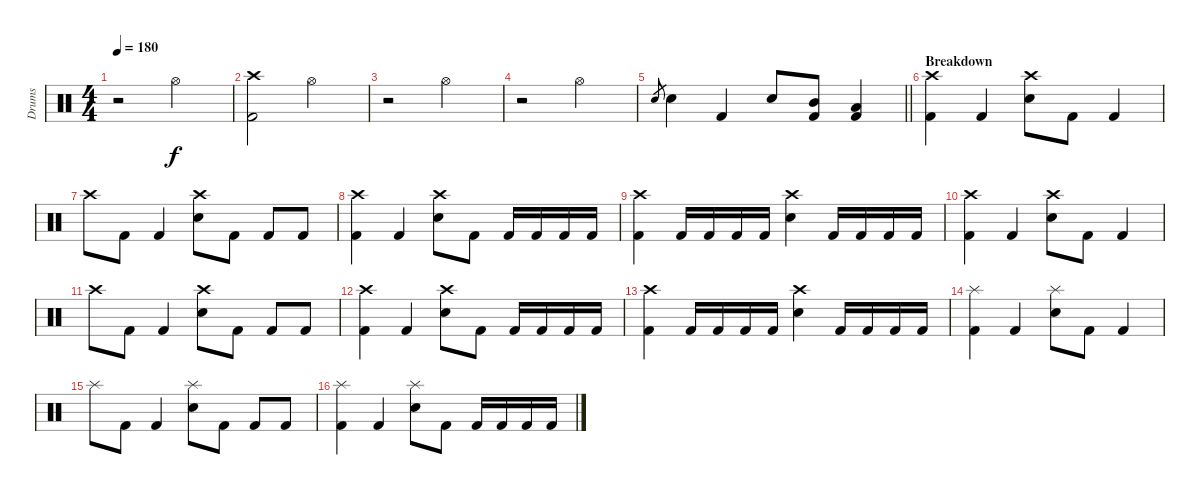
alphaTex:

\track ("Drums" "Drums") {instrument percussion}
\staff {score}
\articulation defaults
\ts (4 4)
\tempo 180
\clef neutral
\ks c
r.2{dy f} "Hi-Hat (open)".2 |
("Crash high (hit)" "Kick (hit) 2").2 "Hi-Hat (open)".2 |
r.2 "Hi-Hat (open)".2 |
r.2 "Hi-Hat (open)".2 |
\barLineRight lightlight "Electric Snare (hit)".8{gr} "Electric Snare (hit)".4 "Kick (hit) 2".4 "Electric Snare (hit)".8
("Mid Tom (hit)" "Kick (hit) 2").8 ("Low Tom (hit)" "Kick (hit) 2").4 |
\section ("" "Breakdown")
("Crash high (hit)" "Kick (hit) 2").4 "Kick (hit) 2".4 ("Crash high (hit)" "Electric Snare (hit)").8 "Kick (hit) 2".8 "Kick (hit) 2".4 |
"Crash high (hit)".8 "Kick (hit) 2".8 "Kick (hit) 2".4 ("Crash high (hit)" "Electric Snare (hit)").8 "Kick (hit) 2".8 "Kick (hit) 2".8 "Kick (hit) 2".8 |
("Crash high (hit)" "Kick (hit) 2").4 "Kick (hit) 2".4 ("Crash high (hit)" "Electric Snare (hit)").8 "Kick (hit) 2".8 "Kick (hit) 2".16 "Kick (hit) 2".16 "Kick (hit) 2".16 "Kick (hit) 2".16 |
("Crash high (hit)" "Kick (hit) 2").4 "Kick (hit) 2".16 "Kick (hit) 2".16 "Kick (hit) 2".16 "Kick (hit) 2".16 ("Crash high (hit)" "Electric Snare (hit)").4 "Kick (hit) 2".16 "Kick (hit) 2".16 "Kick (hit) 2".16 "Kick (hit) 2".16 |
("Crash high (hit)" "Kick (hit) 2").4 "Kick (hit) 2".4 ("Crash high (hit)" "Electric Snare (hit)").8 "Kick (hit) 2".8 "Kick (hit) 2".4 |
"Crash high (hit)".8 "Kick (hit) 2".8 "Kick (hit) 2".4 ("Crash high (hit)" "Electric Snare (hit)").8 "Kick (hit) 2".8 "Kick (hit) 2".8 "Kick (hit) 2".8 |
("Crash high (hit)" "Kick (hit) 2").4 "Kick (hit) 2".4 ("Crash high (hit)" "Electric Snare (hit)").8 "Kick (hit) 2".8 "Kick (hit) 2".16 "Kick (hit) 2".16 "Kick (hit) 2".16 "Kick (hit) 2".16 |
("Crash high (hit)" "Kick (hit) 2").4 "Kick (hit) 2".16 "Kick (hit) 2".16 "Kick (hit) 2".16 "Kick (hit) 2".16 ("Crash high (hit)" "Electric Snare (hit)").4 "Kick (hit) 2".16 "Kick (hit) 2".16 "Kick (hit) 2".16 "Kick (hit) 2".16 |
("Splash (hit)" "Kick (hit) 2").4 "Kick (hit) 2".4 ("Splash (hit)" "Electric Snare (hit)").8 "Kick (hit) 2".8 "Kick (hit) 2".4 |
"Splash (hit)".8 "Kick (hit) 2".8 "Kick (hit) 2".4 ("Splash (hit)" "Electric Snare (hit)").8 "Kick (hit) 2".8 "Kick (hit) 2".8 "Kick (hit) 2".8 |
("Splash (hit)" "Kick (hit) 2").4 "Kick (hit) 2".4 ("Splash (hit)" "Electric Snare (hit)").8 "Kick (hit) 2".8 "Kick (hit) 2".16 "Kick (hit) 2".16 "Kick (hit) 2".16 "Kick (hit) 2".16
